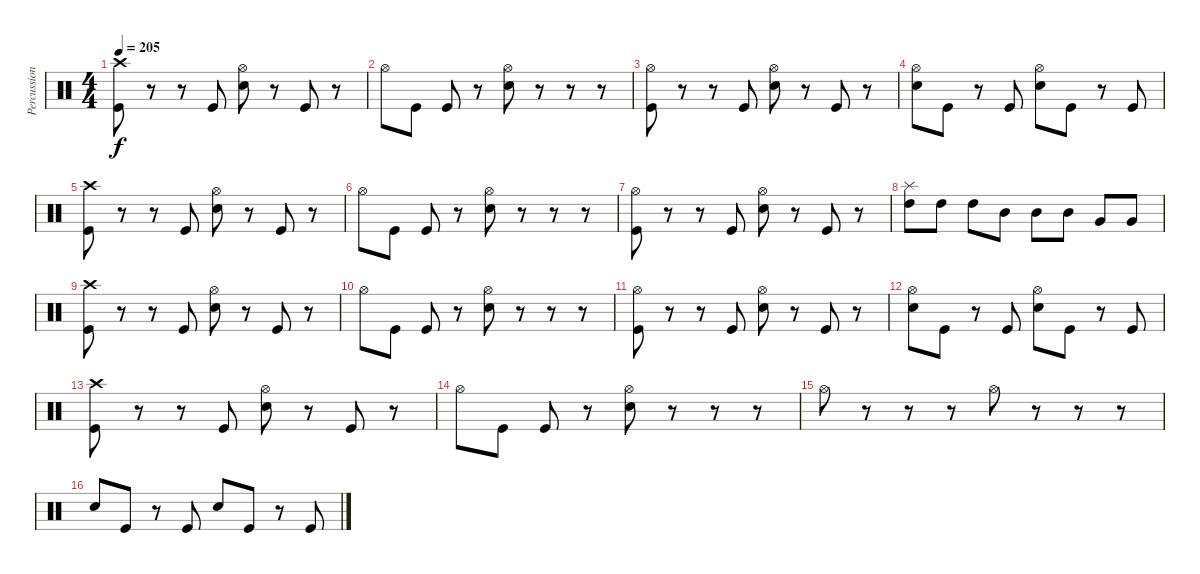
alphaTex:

\track ("Percussion" "Percussion") {instrument percussion}
\staff {score}
\articulation defaults
\ts (4 4)
\tempo 205
\clef neutral
\ks c
("Kick (hit)" "Crash high (hit)").8{dy f} r.8 r.8 "Kick (hit)".8 ("Snare (hit) 2" "Hi-Hat (open)").8 r.8 "Kick (hit)".8 r.8 |
"Hi-Hat (open)".8 "Kick (hit)".8 "Kick (hit)".8 r.8 ("Snare (hit) 2" "Hi-Hat (open)").8 r.8 r.8 r.8 |
("Kick (hit)" "Hi-Hat (open)").8 r.8 r.8 "Kick (hit)".8 ("Snare (hit) 2" "Hi-Hat (open)").8 r.8 "Kick (hit)".8 r.8 |
("Snare (hit) 2" "Hi-Hat (open)").8 "Kick (hit)".8 r.8 "Kick (hit)".8 ("Snare (hit) 2" "Hi-Hat (open)").8 "Kick (hit)".8 r.8 "Kick (hit)".8 |
("Kick (hit)" "Crash high (hit)").8 r.8 r.8 "Kick (hit)".8 ("Snare (hit) 2" "Hi-Hat (open)").8 r.8 "Kick (hit)".8 r.8 |
"Hi-Hat (open)".8 "Kick (hit)".8 "Kick (hit)".8 r.8 ("Snare (hit) 2" "Hi-Hat (open)").8 r.8 r.8 r.8 |
("Kick (hit)" "Hi-Hat (open)").8 r.8 r.8 "Kick (hit)".8 ("Snare (hit) 2" "Hi-Hat (open)").8 r.8 "Kick (hit)".8 r.8 |
("High Tom (hit)" "Splash (hit)").8 "High Tom (hit)".8 "High Tom (hit)".8 "Mid Tom (hit)".8 "Mid Tom (hit)".8 "Mid Tom (hit)".8 "Very Low Tom (hit)".8 "Very Low Tom (hit)".8 |
("Kick (hit)" "Crash high (hit)").8 r.8 r.8 "Kick (hit)".8 ("Snare (hit) 2" "Hi-Hat (open)").8 r.8 "Kick (hit)".8 r.8 |
"Hi-Hat (open)".8 "Kick (hit)".8 "Kick (hit)".8 r.8 ("Snare (hit) 2" "Hi-Hat (open)").8 r.8 r.8 r.8 |
("Kick (hit)" "Hi-Hat (open)").8 r.8 r.8 "Kick (hit)".8 ("Snare (hit) 2" "Hi-Hat (open)").8 r.8 "Kick (hit)".8 r.8 |
("Snare (hit) 2" "Hi-Hat (open)").8 "Kick (hit)".8 r.8 "Kick (hit)".8 ("Snare (hit) 2" "Hi-Hat (open)").8 "Kick (hit)".8 r.8 "Kick (hit)".8 |
("Kick (hit)" "Crash high (hit)").8 r.8 r.8 "Kick (hit)".8 ("Snare (hit) 2" "Hi-Hat (open)").8 r.8 "Kick (hit)".8 r.8 |
"Hi-Hat (open)".8 "Kick (hit)".8 "Kick (hit)".8 r.8 ("Snare (hit) 2" "Hi-Hat (open)").8 r.8 r.8 r.8 |
"Hi-Hat (open)".8 r.8 r.8 r.8 "Hi-Hat (open)".8 r.8 r.8 r.8 |
"Snare (hit) 2".8 "Kick (hit)".8 r.8 "Kick (hit)".8 "Snare (hit) 2".8 "Kick (hit)".8 r.8 "Kick (hit)".8
